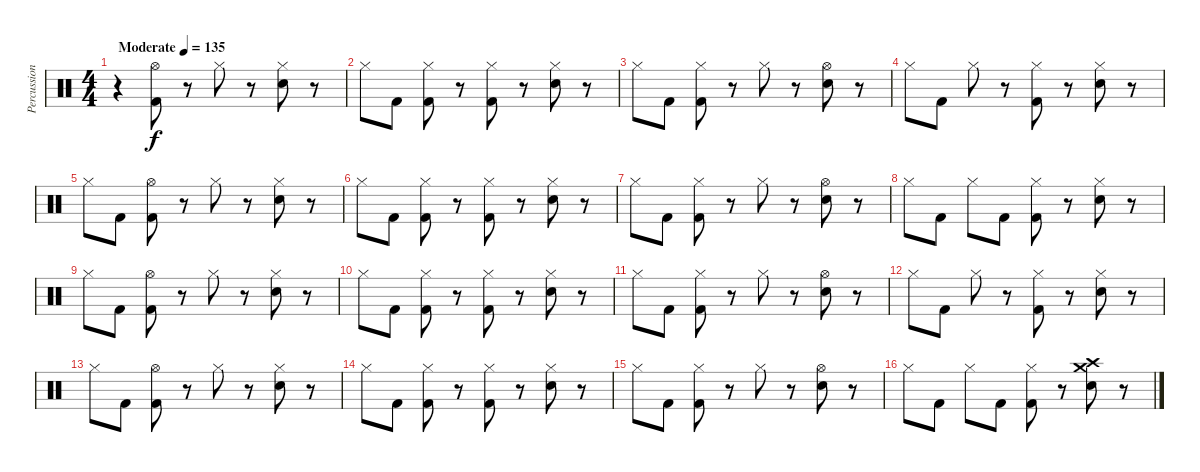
\track ("Percussion" "Percussion") {solo instrument percussion}
\staff {score}
\articulation defaults
\ts (4 4)
\tempo (135 "Moderate")
\clef neutral
\ks c
r.4{dy f} ("Hi-Hat (open)" "Kick (hit) 2").8 r.8 "Hi-Hat (closed)".8 r.8 ("Hi-Hat (closed)" "Snare (hit) 2").8 r.8 |
"Hi-Hat (closed)".8 "Kick (hit) 2".8 ("Hi-Hat (closed)" "Kick (hit) 2").8 r.8 ("Hi-Hat (closed)" "Kick (hit) 2").8 r.8 ("Hi-Hat (closed)" "Snare (hit) 2").8 r.8 |
"Hi-Hat (closed)".8 "Kick (hit) 2".8 ("Hi-Hat (closed)" "Kick (hit) 2").8 r.8 "Hi-Hat (closed)".8 r.8 ("Hi-Hat (open)" "Snare (hit) 2").8 r.8 |
"Hi-Hat (closed)".8 "Kick (hit) 2".8 "Hi-Hat (closed)".8 r.8 ("Hi-Hat (closed)" "Kick (hit) 2").8 r.8 ("Hi-Hat (closed)" "Snare (hit) 2").8 r.8 |
"Hi-Hat (closed)".8 "Kick (hit) 2".8 ("Hi-Hat (open)" "Kick (hit) 2").8 r.8 "Hi-Hat (closed)".8 r.8 ("Hi-Hat (closed)" "Snare (hit) 2").8 r.8 |
"Hi-Hat (closed)".8 "Kick (hit) 2".8 ("Hi-Hat (closed)" "Kick (hit) 2").8 r.8 ("Hi-Hat (closed)" "Kick (hit) 2").8 r.8 ("Hi-Hat (closed)" "Snare (hit) 2").8 r.8 |
"Hi-Hat (closed)".8 "Kick (hit) 2".8 ("Hi-Hat (closed)" "Kick (hit) 2").8 r.8 "Hi-Hat (closed)".8 r.8 ("Hi-Hat (open)" "Snare (hit) 2").8 r.8 |
"Hi-Hat (closed)".8 "Kick (hit) 2".8 "Hi-Hat (closed)".8 "Kick (hit) 2".8 ("Hi-Hat (closed)" "Kick (hit) 2").8 r.8 ("Hi-Hat (closed)" "Snare (hit) 2").8 r.8 |
"Hi-Hat (closed)".8 "Kick (hit) 2".8 ("Hi-Hat (open)" "Kick (hit) 2").8 r.8 "Hi-Hat (closed)".8 r.8 ("Hi-Hat (closed)" "Snare (hit) 2").8 r.8 |
"Hi-Hat (closed)".8 "Kick (hit) 2".8 ("Hi-Hat (closed)" "Kick (hit) 2").8 r.8 ("Hi-Hat (closed)" "Kick (hit) 2").8 r.8 ("Hi-Hat (closed)" "Snare (hit) 2").8 r.8 |
"Hi-Hat (closed)".8 "Kick (hit) 2".8 ("Hi-Hat (closed)" "Kick (hit) 2").8 r.8 "Hi-Hat (closed)".8 r.8 ("Hi-Hat (open)" "Snare (hit) 2").8 r.8 |
"Hi-Hat (closed)".8 "Kick (hit) 2".8 "Hi-Hat (closed)".8 r.8 ("Hi-Hat (closed)" "Kick (hit) 2").8 r.8 ("Hi-Hat (closed)" "Snare (hit) 2").8 r.8 |
"Hi-Hat (closed)".8 "Kick (hit) 2".8 ("Hi-Hat (open)" "Kick (hit) 2").8 r.8 "Hi-Hat (closed)".8 r.8 ("Hi-Hat (closed)" "Snare (hit) 2").8 r.8 |
"Hi-Hat (closed)".8 "Kick (hit) 2".8 ("Hi-Hat (closed)" "Kick (hit) 2").8 r.8 ("Hi-Hat (closed)" "Kick (hit) 2").8 r.8 ("Hi-Hat (closed)" "Snare (hit) 2").8 r.8 |
"Hi-Hat (closed)".8 "Kick (hit) 2".8 ("Hi-Hat (closed)" "Kick (hit) 2").8 r.8 "Hi-Hat (closed)".8 r.8 ("Hi-Hat (open)" "Snare (hit) 2").8 r.8 |
"Hi-Hat (closed)".8 "Kick (hit) 2".8 "Hi-Hat (closed)".8 "Kick (hit) 2".8 ("Hi-Hat (closed)" "Kick (hit) 2").8 r.8 ("Crash medium (hit)" "Crash high (hit)" "Snare (hit) 2").8 r.8
